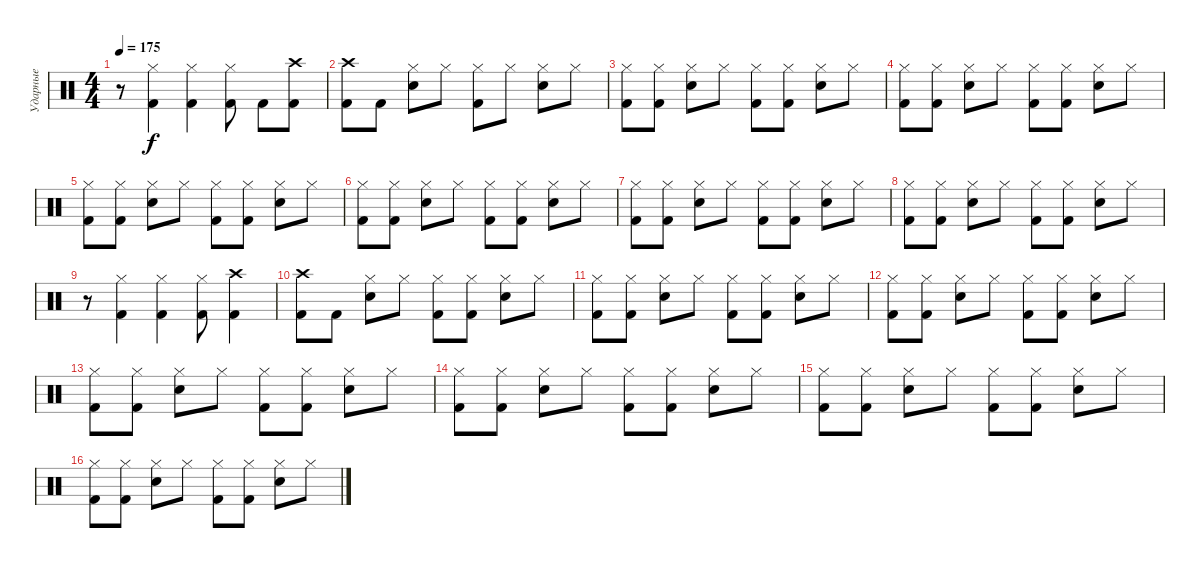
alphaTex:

\track ("Ударные" "Ударные") {instrument percussion}
\staff
\articulation defaults
\ts (4 4)
\tempo 175
\clef neutral
\ks c
r.8{dy f} ("Kick (hit) 2" "Hi-Hat (closed)").4 ("Kick (hit) 2" "Hi-Hat (closed)").4 ("Kick (hit) 2" "Hi-Hat (closed)").8 "Kick (hit) 2".8 ("Kick (hit) 2" "Crash high (hit)").8 |
("Kick (hit) 2" "Crash high (hit)").8 "Kick (hit) 2".8 ("Snare (hit) 2" "Hi-Hat (closed)").8 "Hi-Hat (closed)".8 ("Kick (hit) 2" "Hi-Hat (closed)").8 "Hi-Hat (closed)".8 ("Snare (hit) 2" "Hi-Hat (closed)").8 "Hi-Hat (closed)".8 |
("Kick (hit) 2" "Hi-Hat (closed)").8 ("Kick (hit) 2" "Hi-Hat (closed)").8 ("Snare (hit) 2" "Hi-Hat (closed)").8 "Hi-Hat (closed)".8 ("Kick (hit) 2" "Hi-Hat (closed)").8 ("Kick (hit) 2" "Hi-Hat (closed)").8 ("Snare (hit) 2" "Hi-Hat (closed)").8 "Hi-Hat (closed)".8 |
("Kick (hit) 2" "Hi-Hat (closed)").8 ("Kick (hit) 2" "Hi-Hat (closed)").8 ("Snare (hit) 2" "Hi-Hat (closed)").8 "Hi-Hat (closed)".8 ("Kick (hit) 2" "Hi-Hat (closed)").8 ("Kick (hit) 2" "Hi-Hat (closed)").8 ("Snare (hit) 2" "Hi-Hat (closed)").8 "Hi-Hat (closed)".8 |
("Kick (hit) 2" "Hi-Hat (closed)").8 ("Kick (hit) 2" "Hi-Hat (closed)").8 ("Snare (hit) 2" "Hi-Hat (closed)").8 "Hi-Hat (closed)".8 ("Kick (hit) 2" "Hi-Hat (closed)").8 ("Kick (hit) 2" "Hi-Hat (closed)").8 ("Snare (hit) 2" "Hi-Hat (closed)").8 "Hi-Hat (closed)".8 |
("Kick (hit) 2" "Hi-Hat (closed)").8 ("Kick (hit) 2" "Hi-Hat (closed)").8 ("Snare (hit) 2" "Hi-Hat (closed)").8 "Hi-Hat (closed)".8 ("Kick (hit) 2" "Hi-Hat (closed)").8 ("Kick (hit) 2" "Hi-Hat (closed)").8 ("Snare (hit) 2" "Hi-Hat (closed)").8 "Hi-Hat (closed)".8 |
("Kick (hit) 2" "Hi-Hat (closed)").8 ("Kick (hit) 2" "Hi-Hat (closed)").8 ("Snare (hit) 2" "Hi-Hat (closed)").8 "Hi-Hat (closed)".8 ("Kick (hit) 2" "Hi-Hat (closed)").8 ("Kick (hit) 2" "Hi-Hat (closed)").8 ("Snare (hit) 2" "Hi-Hat (closed)").8 "Hi-Hat (closed)".8 |
("Kick (hit) 2" "Hi-Hat (closed)").8 ("Kick (hit) 2" "Hi-Hat (closed)").8 ("Snare (hit) 2" "Hi-Hat (closed)").8 "Hi-Hat (closed)".8 ("Kick (hit) 2" "Hi-Hat (closed)").8 ("Kick (hit) 2" "Hi-Hat (closed)").8 ("Snare (hit) 2" "Hi-Hat (closed)").8 "Hi-Hat (closed)".8 |
r.8 ("Kick (hit) 2" "Hi-Hat (closed)").4 ("Kick (hit) 2" "Hi-Hat (closed)").4 ("Kick (hit) 2" "Hi-Hat (closed)").8 ("Kick (hit) 2" "Crash high (hit)").4 |
("Kick (hit) 2" "Crash high (hit)").8 "Kick (hit) 2".8 ("Snare (hit) 2" "Hi-Hat (closed)").8 "Hi-Hat (closed)".8 ("Kick (hit) 2" "Hi-Hat (closed)").8 ("Kick (hit) 2" "Hi-Hat (closed)").8 ("Snare (hit) 2" "Hi-Hat (closed)").8 "Hi-Hat (closed)".8 |
("Kick (hit) 2" "Hi-Hat (closed)").8 ("Kick (hit) 2" "Hi-Hat (closed)").8 ("Snare (hit) 2" "Hi-Hat (closed)").8 "Hi-Hat (closed)".8 ("Kick (hit) 2" "Hi-Hat (closed)").8 ("Kick (hit) 2" "Hi-Hat (closed)").8 ("Snare (hit) 2" "Hi-Hat (closed)").8 "Hi-Hat (closed)".8 |
("Kick (hit) 2" "Hi-Hat (closed)").8 ("Kick (hit) 2" "Hi-Hat (closed)").8 ("Snare (hit) 2" "Hi-Hat (closed)").8 "Hi-Hat (closed)".8 ("Kick (hit) 2" "Hi-Hat (closed)").8 ("Kick (hit) 2" "Hi-Hat (closed)").8 ("Snare (hit) 2" "Hi-Hat (closed)").8 "Hi-Hat (closed)".8 |
("Kick (hit) 2" "Hi-Hat (closed)").8 ("Kick (hit) 2" "Hi-Hat (closed)").8 ("Snare (hit) 2" "Hi-Hat (closed)").8 "Hi-Hat (closed)".8 ("Kick (hit) 2" "Hi-Hat (closed)").8 ("Kick (hit) 2" "Hi-Hat (closed)").8 ("Snare (hit) 2" "Hi-Hat (closed)").8 "Hi-Hat (closed)".8 |
("Kick (hit) 2" "Hi-Hat (closed)").8 ("Kick (hit) 2" "Hi-Hat (closed)").8 ("Snare (hit) 2" "Hi-Hat (closed)").8 "Hi-Hat (closed)".8 ("Kick (hit) 2" "Hi-Hat (closed)").8 ("Kick (hit) 2" "Hi-Hat (closed)").8 ("Snare (hit) 2" "Hi-Hat (closed)").8 "Hi-Hat (closed)".8 |
("Kick (hit) 2" "Hi-Hat (closed)").8 ("Kick (hit) 2" "Hi-Hat (closed)").8 ("Snare (hit) 2" "Hi-Hat (closed)").8 "Hi-Hat (closed)".8 ("Kick (hit) 2" "Hi-Hat (closed)").8 ("Kick (hit) 2" "Hi-Hat (closed)").8 ("Snare (hit) 2" "Hi-Hat (closed)").8 "Hi-Hat (closed)".8 |
("Kick (hit) 2" "Hi-Hat (closed)").8 ("Kick (hit) 2" "Hi-Hat (closed)").8 ("Snare (hit) 2" "Hi-Hat (closed)").8 "Hi-Hat (closed)".8 ("Kick (hit) 2" "Hi-Hat (closed)").8 ("Kick (hit) 2" "Hi-Hat (closed)").8 ("Snare (hit) 2" "Hi-Hat (closed)").8 "Hi-Hat (closed)".8
